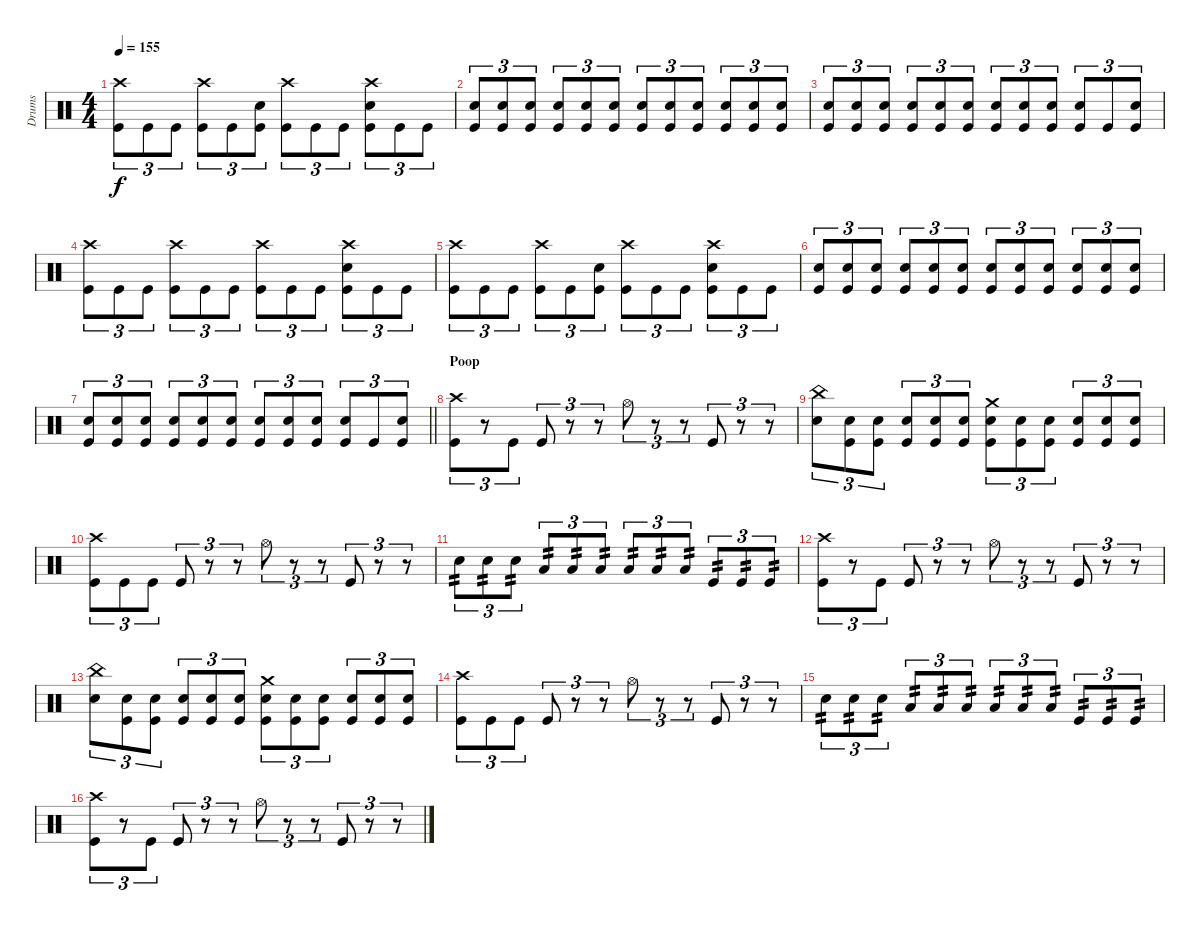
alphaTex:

\track ("Drums" "Drums") {instrument percussion}
\staff {score}
\articulation defaults
\ts (4 4)
\tempo 155
\clef neutral
\ks c
("Crash high (hit)" "Kick (hit)").8{tu (3 2) dy f} "Kick (hit)".8{tu (3 2)} "Kick (hit)".8{tu (3 2)} ("Crash high (hit)" "Kick (hit)").8{tu (3 2)} "Kick (hit)".8{tu (3 2)} ("Electric Snare (hit)" "Kick (hit)").8{tu (3 2)} ("Crash high (hit)" "Kick (hit)").8{tu (3 2)} "Kick (hit)".8{tu (3 2)} "Kick (hit)".8{tu (3 2)} ("Crash high (hit)" "Electric Snare (hit)" "Kick (hit)").8{tu (3 2)} "Kick (hit)".8{tu (3 2)} "Kick (hit)".8{tu (3 2)} |
("Electric Snare (hit)" "Kick (hit)").8{tu (3 2)} ("Electric Snare (hit)" "Kick (hit)").8{tu (3 2)} ("Electric Snare (hit)" "Kick (hit)").8{tu (3 2)} ("Electric Snare (hit)" "Kick (hit)").8{tu (3 2)} ("Electric Snare (hit)" "Kick (hit)").8{tu (3 2)} ("Electric Snare (hit)" "Kick (hit)").8{tu (3 2)} ("Electric Snare (hit)" "Kick (hit)").8{tu (3 2)} ("Electric Snare (hit)" "Kick (hit)").8{tu (3 2)} ("Electric Snare (hit)" "Kick (hit)").8{tu (3 2)} ("Electric Snare (hit)" "Kick (hit)").8{tu (3 2)} ("Electric Snare (hit)" "Kick (hit)").8{tu (3 2)} ("Electric Snare (hit)" "Kick (hit)").8{tu (3 2)} |
("Electric Snare (hit)" "Kick (hit)").8{tu (3 2)} ("Electric Snare (hit)" "Kick (hit)").8{tu (3 2)} ("Electric Snare (hit)" "Kick (hit)").8{tu (3 2)} ("Electric Snare (hit)" "Kick (hit)").8{tu (3 2)} ("Electric Snare (hit)" "Kick (hit)").8{tu (3 2)} ("Electric Snare (hit)" "Kick (hit)").8{tu (3 2)} ("Electric Snare (hit)" "Kick (hit)").8{tu (3 2)} ("Electric Snare (hit)" "Kick (hit)").8{tu (3 2)} ("Electric Snare (hit)" "Kick (hit)").8{tu (3 2)} ("Electric Snare (hit)" "Kick (hit)").8{tu (3 2)} "Kick (hit)".8{tu (3 2)} ("Electric Snare (hit)" "Kick (hit)").8{tu (3 2)} |
("Crash high (hit)" "Kick (hit)").8{tu (3 2)} "Kick (hit)".8{tu (3 2)} "Kick (hit)".8{tu (3 2)} ("Crash high (hit)" "Kick (hit)").8{tu (3 2)} "Kick (hit)".8{tu (3 2)} "Kick (hit)".8{tu (3 2)} ("Crash high (hit)" "Kick (hit)").8{tu (3 2)} "Kick (hit)".8{tu (3 2)} "Kick (hit)".8{tu (3 2)} ("Crash high (hit)" "Electric Snare (hit)" "Kick (hit)").8{tu (3 2)} "Kick (hit)".8{tu (3 2)} "Kick (hit)".8{tu (3 2)} |
("Crash high (hit)" "Kick (hit)").8{tu (3 2)} "Kick (hit)".8{tu (3 2)} "Kick (hit)".8{tu (3 2)} ("Crash high (hit)" "Kick (hit)").8{tu (3 2)} "Kick (hit)".8{tu (3 2)} ("Electric Snare (hit)" "Kick (hit)").8{tu (3 2)} ("Crash high (hit)" "Kick (hit)").8{tu (3 2)} "Kick (hit)".8{tu (3 2)} "Kick (hit)".8{tu (3 2)} ("Crash high (hit)" "Electric Snare (hit)" "Kick (hit)").8{tu (3 2)} "Kick (hit)".8{tu (3 2)} "Kick (hit)".8{tu (3 2)} |
("Electric Snare (hit)" "Kick (hit)").8{tu (3 2)} ("Electric Snare (hit)" "Kick (hit)").8{tu (3 2)} ("Electric Snare (hit)" "Kick (hit)").8{tu (3 2)} ("Electric Snare (hit)" "Kick (hit)").8{tu (3 2)} ("Electric Snare (hit)" "Kick (hit)").8{tu (3 2)} ("Electric Snare (hit)" "Kick (hit)").8{tu (3 2)} ("Electric Snare (hit)" "Kick (hit)").8{tu (3 2)} ("Electric Snare (hit)" "Kick (hit)").8{tu (3 2)} ("Electric Snare (hit)" "Kick (hit)").8{tu (3 2)} ("Electric Snare (hit)" "Kick (hit)").8{tu (3 2)} ("Electric Snare (hit)" "Kick (hit)").8{tu (3 2)} ("Electric Snare (hit)" "Kick (hit)").8{tu (3 2)} |
\barLineRight lightlight
("Electric Snare (hit)" "Kick (hit)").8{tu (3 2)} ("Electric Snare (hit)" "Kick (hit)").8{tu (3 2)} ("Electric Snare (hit)" "Kick (hit)").8{tu (3 2)} ("Electric Snare (hit)" "Kick (hit)").8{tu (3 2)} ("Electric Snare (hit)" "Kick (hit)").8{tu (3 2)} ("Electric Snare (hit)" "Kick (hit)").8{tu (3 2)} ("Electric Snare (hit)" "Kick (hit)").8{tu (3 2)} ("Electric Snare (hit)" "Kick (hit)").8{tu (3 2)} ("Electric Snare (hit)" "Kick (hit)").8{tu (3 2)} ("Electric Snare (hit)" "Kick (hit)").8{tu (3 2)} "Kick (hit)".8{tu (3 2)} ("Electric Snare (hit)" "Kick (hit)").8{tu (3 2)} |
\section ("" "Poop")
("Crash high (hit)" "Kick (hit)").8{tu (3 2)} r.8{tu (3 2)} "Kick (hit)".8{tu (3 2)} "Kick (hit)".8{tu (3 2)} r.8{tu (3 2)} r.8{tu (3 2)} "Hi-Hat (open)".8{tu (3 2)} r.8{tu (3 2)} r.8{tu (3 2)} "Kick (hit)".8{tu (3 2)} r.8{tu (3 2)} r.8{tu (3 2)} |
("China (hit)" "Electric Snare (hit)").8{tu (3 2)} ("Electric Snare (hit)" "Kick (hit)").8{tu (3 2)} ("Electric Snare (hit)" "Kick (hit)").8{tu (3 2)} ("Electric Snare (hit)" "Kick (hit)").8{tu (3 2)} ("Electric Snare (hit)" "Kick (hit)").8{tu (3 2)} ("Electric Snare (hit)" "Kick (hit)").8{tu (3 2)} ("Crash medium (hit)" "Electric Snare (hit)" "Kick (hit)").8{tu (3 2)} ("Electric Snare (hit)" "Kick (hit)").8{tu (3 2)} ("Electric Snare (hit)" "Kick (hit)").8{tu (3 2)} ("Electric Snare (hit)" "Kick (hit)").8{tu (3 2)} ("Electric Snare (hit)" "Kick (hit)").8{tu (3 2)} ("Electric Snare (hit)" "Kick (hit)").8{tu (3 2)} |
("Crash high (hit)" "Kick (hit)").8{tu (3 2)} "Kick (hit)".8{tu (3 2)} "Kick (hit)".8{tu (3 2)} "Kick (hit)".8{tu (3 2)} r.8{tu (3 2)} r.8{tu (3 2)} "Hi-Hat (open)".8{tu (3 2)} r.8{tu (3 2)} r.8{tu (3 2)} "Kick (hit)".8{tu (3 2)} r.8{tu (3 2)} r.8{tu (3 2)} |
"Electric Snare (hit)".8{tu (3 2) tp 2} "Electric Snare (hit)".8{tu (3 2) tp 2} "Electric Snare (hit)".8{tu (3 2) tp 2} "Low Tom (hit)".8{tu (3 2) tp 2} "Low Tom (hit)".8{tu (3 2) tp 2} "Low Tom (hit)".8{tu (3 2) tp 2} "Low Floor Tom (hit)".8{tu (3 2) tp 2} "Low Floor Tom (hit)".8{tu (3 2) tp 2} "Low Floor Tom (hit)".8{tu (3 2) tp 2} "Kick (hit)".8{tu (3 2) tp 2} "Kick (hit)".8{tu (3 2) tp 2} "Kick (hit)".8{tu (3 2) tp 2} |
("Crash high (hit)" "Kick (hit)").8{tu (3 2)} r.8{tu (3 2)} "Kick (hit)".8{tu (3 2)} "Kick (hit)".8{tu (3 2)} r.8{tu (3 2)} r.8{tu (3 2)} "Hi-Hat (open)".8{tu (3 2)} r.8{tu (3 2)} r.8{tu (3 2)} "Kick (hit)".8{tu (3 2)} r.8{tu (3 2)} r.8{tu (3 2)} |
("China (hit)" "Electric Snare (hit)").8{tu (3 2)} ("Electric Snare (hit)" "Kick (hit)").8{tu (3 2)} ("Electric Snare (hit)" "Kick (hit)").8{tu (3 2)} ("Electric Snare (hit)" "Kick (hit)").8{tu (3 2)} ("Electric Snare (hit)" "Kick (hit)").8{tu (3 2)} ("Electric Snare (hit)" "Kick (hit)").8{tu (3 2)} ("Crash medium (hit)" "Electric Snare (hit)" "Kick (hit)").8{tu (3 2)} ("Electric Snare (hit)" "Kick (hit)").8{tu (3 2)} ("Electric Snare (hit)" "Kick (hit)").8{tu (3 2)} ("Electric Snare (hit)" "Kick (hit)").8{tu (3 2)} ("Electric Snare (hit)" "Kick (hit)").8{tu (3 2)} ("Electric Snare (hit)" "Kick (hit)").8{tu (3 2)} |
("Crash high (hit)" "Kick (hit)").8{tu (3 2)} "Kick (hit)".8{tu (3 2)} "Kick (hit)".8{tu (3 2)} "Kick (hit)".8{tu (3 2)} r.8{tu (3 2)} r.8{tu (3 2)} "Hi-Hat (open)".8{tu (3 2)} r.8{tu (3 2)} r.8{tu (3 2)} "Kick (hit)".8{tu (3 2)} r.8{tu (3 2)} r.8{tu (3 2)} |
"Electric Snare (hit)".8{tu (3 2) tp 2} "Electric Snare (hit)".8{tu (3 2) tp 2} "Electric Snare (hit)".8{tu (3 2) tp 2} "Low Tom (hit)".8{tu (3 2) tp 2} "Low Tom (hit)".8{tu (3 2) tp 2} "Low Tom (hit)".8{tu (3 2) tp 2} "Low Floor Tom (hit)".8{tu (3 2) tp 2} "Low Floor Tom (hit)".8{tu (3 2) tp 2} "Low Floor Tom (hit)".8{tu (3 2) tp 2} "Kick (hit)".8{tu (3 2) tp 2} "Kick (hit)".8{tu (3 2) tp 2} "Kick (hit)".8{tu (3 2) tp 2} |
("Crash high (hit)" "Kick (hit)").8{tu (3 2)} r.8{tu (3 2)} "Kick (hit)".8{tu (3 2)} "Kick (hit)".8{tu (3 2)} r.8{tu (3 2)} r.8{tu (3 2)} "Hi-Hat (open)".8{tu (3 2)} r.8{tu (3 2)} r.8{tu (3 2)} "Kick (hit)".8{tu (3 2)} r.8{tu (3 2)} r.8{tu (3 2)}
